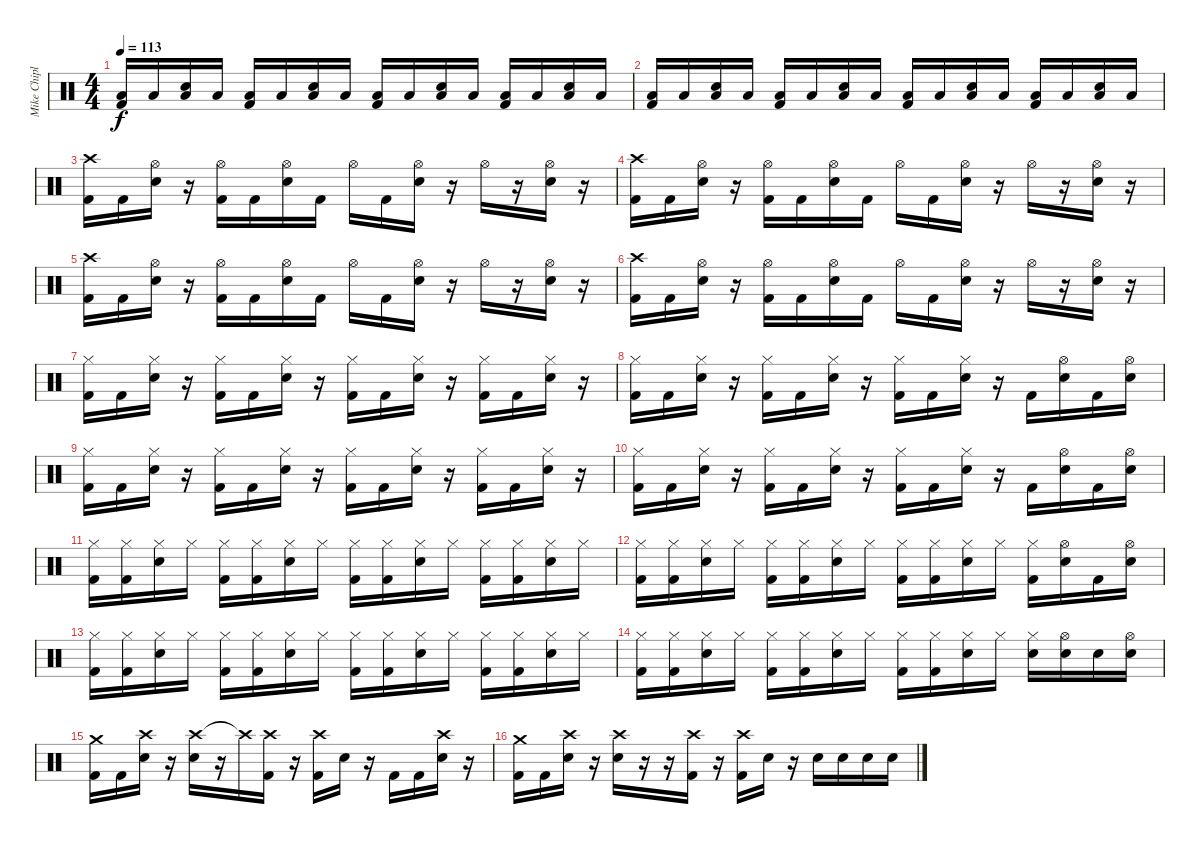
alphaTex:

\track ("Mike Chiplin" "Mike Chipl") {instrument percussion}
\staff {score}
\articulation defaults
\ts (4 4)
\tempo 113
\clef neutral
\ks c
("Low Floor Tom (hit)" "Kick (hit) 2").16{dy f} "Low Floor Tom (hit)".16 ("Low Floor Tom (hit)" "Snare (hit) 2").16 "Low Floor Tom (hit)".16 ("Low Floor Tom (hit)" "Kick (hit) 2").16 "Low Floor Tom (hit)".16 ("Low Floor Tom (hit)" "Snare (hit) 2").16 "Low Floor Tom (hit)".16 ("Low Floor Tom (hit)" "Kick (hit) 2").16 "Low Floor Tom (hit)".16 ("Low Floor Tom (hit)" "Snare (hit) 2").16 "Low Floor Tom (hit)".16 ("Low Floor Tom (hit)" "Kick (hit) 2").16 "Low Floor Tom (hit)".16 ("Low Floor Tom (hit)" "Snare (hit) 2").16 "Low Floor Tom (hit)".16 |
("Low Floor Tom (hit)" "Kick (hit) 2").16 "Low Floor Tom (hit)".16 ("Low Floor Tom (hit)" "Snare (hit) 2").16 "Low Floor Tom (hit)".16 ("Low Floor Tom (hit)" "Kick (hit) 2").16 "Low Floor Tom (hit)".16 ("Low Floor Tom (hit)" "Snare (hit) 2").16 "Low Floor Tom (hit)".16 ("Low Floor Tom (hit)" "Kick (hit) 2").16 "Low Floor Tom (hit)".16 ("Low Floor Tom (hit)" "Snare (hit) 2").16 "Low Floor Tom (hit)".16 ("Low Floor Tom (hit)" "Kick (hit) 2").16 "Low Floor Tom (hit)".16 ("Low Floor Tom (hit)" "Snare (hit) 2").16 "Low Floor Tom (hit)".16 |
("Crash high (hit)" "Kick (hit) 2").16 "Kick (hit) 2".16 ("Hi-Hat (open)" "Snare (hit) 2").16 r.16 ("Hi-Hat (open)" "Kick (hit) 2").16 "Kick (hit) 2".16 ("Hi-Hat (open)" "Snare (hit) 2").16 "Kick (hit) 2".16 "Hi-Hat (open)".16 "Kick (hit) 2".16 ("Hi-Hat (open)" "Snare (hit) 2").16 r.16 "Hi-Hat (open)".16 r.16 ("Hi-Hat (open)" "Snare (hit) 2").16 r.16 |
("Crash high (hit)" "Kick (hit) 2").16 "Kick (hit) 2".16 ("Hi-Hat (open)" "Snare (hit) 2").16 r.16 ("Hi-Hat (open)" "Kick (hit) 2").16 "Kick (hit) 2".16 ("Hi-Hat (open)" "Snare (hit) 2").16 "Kick (hit) 2".16 "Hi-Hat (open)".16 "Kick (hit) 2".16 ("Hi-Hat (open)" "Snare (hit) 2").16 r.16 "Hi-Hat (open)".16 r.16 ("Hi-Hat (open)" "Snare (hit) 2").16 r.16 |
("Crash high (hit)" "Kick (hit) 2").16 "Kick (hit) 2".16 ("Hi-Hat (open)" "Snare (hit) 2").16 r.16 ("Hi-Hat (open)" "Kick (hit) 2").16 "Kick (hit) 2".16 ("Hi-Hat (open)" "Snare (hit) 2").16 "Kick (hit) 2".16 "Hi-Hat (open)".16 "Kick (hit) 2".16 ("Hi-Hat (open)" "Snare (hit) 2").16 r.16 "Hi-Hat (open)".16 r.16 ("Hi-Hat (open)" "Snare (hit) 2").16 r.16 |
("Crash high (hit)" "Kick (hit) 2").16 "Kick (hit) 2".16 ("Hi-Hat (open)" "Snare (hit) 2").16 r.16 ("Hi-Hat (open)" "Kick (hit) 2").16 "Kick (hit) 2".16 ("Hi-Hat (open)" "Snare (hit) 2").16 "Kick (hit) 2".16 "Hi-Hat (open)".16 "Kick (hit) 2".16 ("Hi-Hat (open)" "Snare (hit) 2").16 r.16 "Hi-Hat (open)".16 r.16 ("Hi-Hat (open)" "Snare (hit) 2").16 r.16 |
("Hi-Hat (closed)" "Kick (hit) 2").16 "Kick (hit) 2".16 ("Hi-Hat (closed)" "Snare (hit) 2").16 r.16 ("Hi-Hat (closed)" "Kick (hit) 2").16 "Kick (hit) 2".16 ("Hi-Hat (closed)" "Snare (hit) 2").16 r.16 ("Hi-Hat (closed)" "Kick (hit) 2").16 "Kick (hit) 2".16 ("Hi-Hat (closed)" "Snare (hit) 2").16 r.16 ("Hi-Hat (closed)" "Kick (hit) 2").16 "Kick (hit) 2".16 ("Hi-Hat (closed)" "Snare (hit) 2").16 r.16 |
("Hi-Hat (closed)" "Kick (hit) 2").16 "Kick (hit) 2".16 ("Hi-Hat (closed)" "Snare (hit) 2").16 r.16 ("Hi-Hat (closed)" "Kick (hit) 2").16 "Kick (hit) 2".16 ("Hi-Hat (closed)" "Snare (hit) 2").16 r.16 ("Hi-Hat (closed)" "Kick (hit) 2").16 "Kick (hit) 2".16 ("Hi-Hat (closed)" "Snare (hit) 2").16 r.16 "Kick (hit) 2".16 ("Hi-Hat (open)" "Snare (hit) 2").16 "Kick (hit) 2".16 ("Hi-Hat (open)" "Snare (hit) 2").16 |
("Hi-Hat (closed)" "Kick (hit) 2").16 "Kick (hit) 2".16 ("Hi-Hat (closed)" "Snare (hit) 2").16 r.16 ("Hi-Hat (closed)" "Kick (hit) 2").16 "Kick (hit) 2".16 ("Hi-Hat (closed)" "Snare (hit) 2").16 r.16 ("Hi-Hat (closed)" "Kick (hit) 2").16 "Kick (hit) 2".16 ("Hi-Hat (closed)" "Snare (hit) 2").16 r.16 ("Hi-Hat (closed)" "Kick (hit) 2").16 "Kick (hit) 2".16 ("Hi-Hat (closed)" "Snare (hit) 2").16 r.16 |
("Hi-Hat (closed)" "Kick (hit) 2").16 "Kick (hit) 2".16 ("Hi-Hat (closed)" "Snare (hit) 2").16 r.16 ("Hi-Hat (closed)" "Kick (hit) 2").16 "Kick (hit) 2".16 ("Hi-Hat (closed)" "Snare (hit) 2").16 r.16 ("Hi-Hat (closed)" "Kick (hit) 2").16 "Kick (hit) 2".16 ("Hi-Hat (closed)" "Snare (hit) 2").16 r.16 "Kick (hit) 2".16 ("Hi-Hat (open)" "Snare (hit) 2").16 "Kick (hit) 2".16 ("Hi-Hat (open)" "Snare (hit) 2").16 |
("Hi-Hat (closed)" "Kick (hit) 2").16 ("Hi-Hat (closed)" "Kick (hit) 2").16 ("Hi-Hat (closed)" "Snare (hit) 2").16 "Hi-Hat (closed)".16 ("Hi-Hat (closed)" "Kick (hit) 2").16 ("Hi-Hat (closed)" "Kick (hit) 2").16 ("Hi-Hat (closed)" "Snare (hit) 2").16 "Hi-Hat (closed)".16 ("Hi-Hat (closed)" "Kick (hit) 2").16 ("Hi-Hat (closed)" "Kick (hit) 2").16 ("Hi-Hat (closed)" "Snare (hit) 2").16 "Hi-Hat (closed)".16 ("Hi-Hat (closed)" "Kick (hit) 2").16 ("Hi-Hat (closed)" "Kick (hit) 2").16 ("Hi-Hat (closed)" "Snare (hit) 2").16 "Hi-Hat (closed)".16 |
("Hi-Hat (closed)" "Kick (hit) 2").16 ("Hi-Hat (closed)" "Kick (hit) 2").16 ("Hi-Hat (closed)" "Snare (hit) 2").16 "Hi-Hat (closed)".16 ("Hi-Hat (closed)" "Kick (hit) 2").16 ("Hi-Hat (closed)" "Kick (hit) 2").16 ("Hi-Hat (closed)" "Snare (hit) 2").16 "Hi-Hat (closed)".16 ("Hi-Hat (closed)" "Kick (hit) 2").16 ("Hi-Hat (closed)" "Kick (hit) 2").16 ("Hi-Hat (closed)" "Snare (hit) 2").16 "Hi-Hat (closed)".16 ("Hi-Hat (closed)" "Kick (hit) 2").16 ("Hi-Hat (open)" "Snare (hit) 2").16 "Kick (hit) 2".16 ("Hi-Hat (open)" "Snare (hit) 2").16 |
("Hi-Hat (closed)" "Kick (hit) 2").16 ("Hi-Hat (closed)" "Kick (hit) 2").16 ("Hi-Hat (closed)" "Snare (hit) 2").16 "Hi-Hat (closed)".16 ("Hi-Hat (closed)" "Kick (hit) 2").16 ("Hi-Hat (closed)" "Kick (hit) 2").16 ("Hi-Hat (closed)" "Snare (hit) 2").16 "Hi-Hat (closed)".16 ("Hi-Hat (closed)" "Kick (hit) 2").16 ("Hi-Hat (closed)" "Kick (hit) 2").16 ("Hi-Hat (closed)" "Snare (hit) 2").16 "Hi-Hat (closed)".16 ("Hi-Hat (closed)" "Kick (hit) 2").16 ("Hi-Hat (closed)" "Kick (hit) 2").16 ("Hi-Hat (closed)" "Snare (hit) 2").16 "Hi-Hat (closed)".16 |
("Hi-Hat (closed)" "Kick (hit) 2").16 ("Hi-Hat (closed)" "Kick (hit) 2").16 ("Hi-Hat (closed)" "Snare (hit) 2").16 "Hi-Hat (closed)".16 ("Hi-Hat (closed)" "Kick (hit) 2").16 ("Hi-Hat (closed)" "Kick (hit) 2").16 ("Hi-Hat (closed)" "Snare (hit) 2").16 "Hi-Hat (closed)".16 ("Hi-Hat (closed)" "Kick (hit) 2").16 ("Hi-Hat (closed)" "Kick (hit) 2").16 ("Hi-Hat (closed)" "Snare (hit) 2").16 "Hi-Hat (closed)".16 ("Hi-Hat (closed)" "Snare (hit) 2").16 ("Hi-Hat (open)" "Snare (hit) 2").16 "Snare (hit) 2".16 ("Hi-Hat (open)" "Snare (hit) 2").16 |
("Crash medium (hit)" "Kick (hit) 2").16 "Kick (hit) 2".16 ("Crash high (hit)" "Snare (hit) 2").16 r.16 ("Crash high (hit)" "Snare (hit) 2").16 r.16 "Crash high (hit)"{t}.16 ("Crash high (hit)" "Kick (hit) 2").16 r.16 ("Crash high (hit)" "Kick (hit) 2").16 "Snare (hit) 2".16 r.16 "Kick (hit) 2".16 "Kick (hit) 2".16 ("Crash high (hit)" "Snare (hit) 2").16 r.16 |
("Crash medium (hit)" "Kick (hit) 2").16 "Kick (hit) 2".16 ("Crash high (hit)" "Snare (hit) 2").16 r.16 ("Crash high (hit)" "Snare (hit) 2").16 r.16 r.16 ("Crash high (hit)" "Kick (hit) 2").16 r.16 ("Crash high (hit)" "Kick (hit) 2").16 "Snare (hit) 2".16 r.16 "Snare (hit) 2".16 "Snare (hit) 2".16 "Snare (hit) 2".16 "Snare (hit) 2".16
